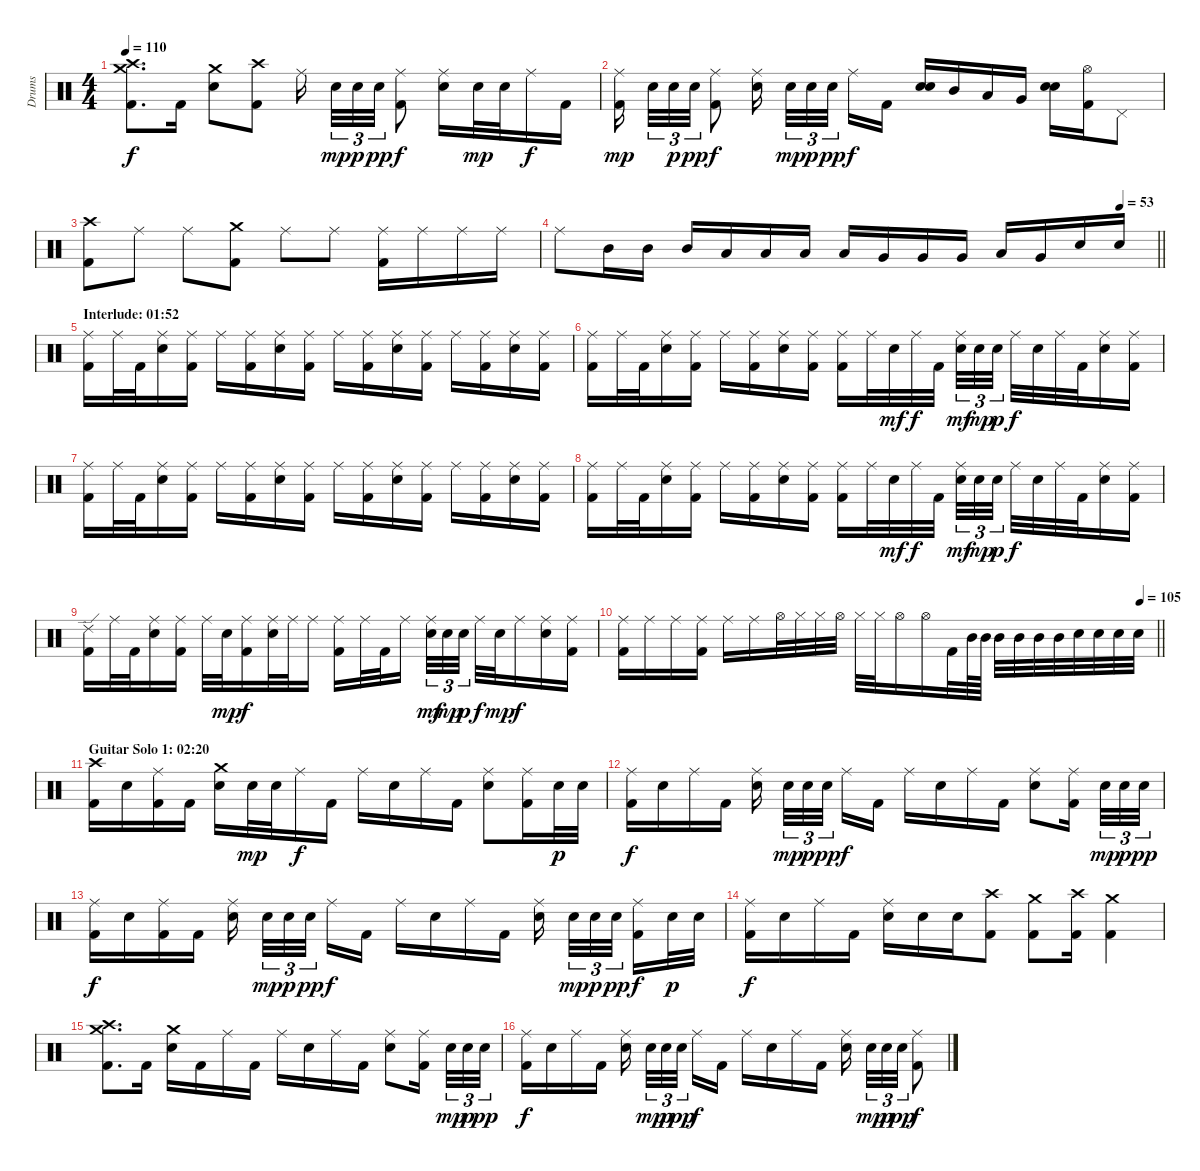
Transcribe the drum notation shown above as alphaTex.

\track ("Drums" "Drums") {instrument percussion}
\staff {score}
\articulation defaults
\ts (4 4)
\tempo 110
\clef neutral
\ks c
("Crash high (hit)" "Crash medium (hit)" "Kick (hit) 2").8{d dy f} "Kick (hit) 2".16 ("Crash medium (hit)" "Electric Snare (hit)").8 ("Crash high (hit)" "Kick (hit) 2").8 "Ride (middle)".16{beam splitsecondary} "Electric Snare (hit)".32{tu (3 2) dy mp} "Electric Snare (hit)".32{tu (3 2) dy p} "Electric Snare (hit)".32{tu (3 2) dy pp} ("Ride (middle)" "Kick (hit) 2").8{dy f} ("Ride (middle)" "Electric Snare (hit)").16 "Electric Snare (hit)".32{dy mp} "Electric Snare (hit)".32 "Ride (middle)".16{dy f} "Kick (hit) 2".16 |
("Ride (middle)" "Kick (hit) 2").16{dy mp beam splitsecondary} "Electric Snare (hit)".32{tu (3 2)} "Electric Snare (hit)".32{tu (3 2) dy p} "Electric Snare (hit)".32{tu (3 2) dy pp} ("Ride (middle)" "Kick (hit) 2").8{dy f} ("Ride (middle)" "Electric Snare (hit)").16{beam splitsecondary} "Electric Snare (hit)".32{tu (3 2) dy mp} "Electric Snare (hit)".32{tu (3 2) dy p} "Electric Snare (hit)".32{tu (3 2) dy pp beam splitsecondary} "Ride (middle)".16{dy f} "Kick (hit) 2".16 ("Electric Snare (hit)" "Electric Snare (hit)").16{bu 60} "Mid Tom (hit)".16 "Low Tom (hit)".16 "Very Low Tom (hit)".16 ("Electric Snare (hit)" "Electric Snare (hit)").16{bu 60} ("Hi-Hat (open)" "Kick (hit) 2").16 "Pedal Hi-Hat (hit)".8 |
("Crash high (hit)" "Kick (hit) 2").8{volume 4} "Ride (middle)".8 "Ride (middle)".8 ("Crash medium (hit)" "Kick (hit) 2").8 "Ride (middle)".8 "Ride (middle)".8 ("Ride (middle)" "Kick (hit) 2").16 "Ride (middle)".16 "Ride (middle)".16 "Ride (middle)".16 |
\tempo (53 0.9375)
\barLineRight lightlight "Ride (middle)".8 "Mid Tom (hit)".16 "Mid Tom (hit)".16 "Mid Tom (hit)".16 "Low Tom (hit)".16 "Low Tom (hit)".16 "Low Tom (hit)".16 "Low Tom (hit)".16 "Very Low Tom (hit)".16 "Very Low Tom (hit)".16 "Very Low Tom (hit)".16 "Low Tom (hit)".16 "Very Low Tom (hit)".16 "Electric Snare (hit)".16 "Electric Snare (hit)".16
|
\section ("" "Interlude: 01:52")
("Ride (middle)" "Kick (hit) 2").16{volume 5} "Ride (middle)".32 "Kick (hit) 2".32 ("Ride (middle)" "Electric Snare (hit)").16 ("Ride (middle)" "Kick (hit) 2").16 "Ride (middle)".16 ("Ride (middle)" "Kick (hit) 2").16 ("Ride (middle)" "Electric Snare (hit)").16 ("Ride (middle)" "Kick (hit) 2").16 "Ride (middle)".16 ("Ride (middle)" "Kick (hit) 2").16 ("Ride (middle)" "Electric Snare (hit)").16 ("Ride (middle)" "Kick (hit) 2").16 "Ride (middle)".16 ("Ride (middle)" "Kick (hit) 2").16 ("Ride (middle)" "Electric Snare (hit)").16 ("Ride (middle)" "Kick (hit) 2").16 |
("Ride (middle)" "Kick (hit) 2").16 "Ride (middle)".32 "Kick (hit) 2".32 ("Ride (middle)" "Electric Snare (hit)").16 ("Ride (middle)" "Kick (hit) 2").16 "Ride (middle)".16 ("Ride (middle)" "Kick (hit) 2").16 ("Ride (middle)" "Electric Snare (hit)").16 ("Ride (middle)" "Kick (hit) 2").16 ("Ride (middle)" "Kick (hit) 2").16 "Ride (middle)".32 "Electric Snare (hit)".32{dy mf} "Ride (middle)".32{dy f} "Kick (hit) 2".32{beam splitsecondary} ("Ride (middle)" "Electric Snare (hit)").32{tu (3 2) dy mf} "Electric Snare (hit)".32{tu (3 2) dy mp} "Electric Snare (hit)".32{tu (3 2) dy p} "Ride (middle)".32{dy f} "Electric Snare (hit)".32 "Ride (middle)".32 "Kick (hit) 2".32 ("Ride (middle)" "Electric Snare (hit)").16 ("Ride (middle)" "Kick (hit) 2").16 |
("Ride (middle)" "Kick (hit) 2").16 "Ride (middle)".32 "Kick (hit) 2".32 ("Ride (middle)" "Electric Snare (hit)").16 ("Ride (middle)" "Kick (hit) 2").16 "Ride (middle)".16 ("Ride (middle)" "Kick (hit) 2").16 ("Ride (middle)" "Electric Snare (hit)").16 ("Ride (middle)" "Kick (hit) 2").16 "Ride (middle)".16 ("Ride (middle)" "Kick (hit) 2").16 ("Ride (middle)" "Electric Snare (hit)").16 ("Ride (middle)" "Kick (hit) 2").16 "Ride (middle)".16 ("Ride (middle)" "Kick (hit) 2").16 ("Ride (middle)" "Electric Snare (hit)").16 ("Ride (middle)" "Kick (hit) 2").16 |
("Ride (middle)" "Kick (hit) 2").16 "Ride (middle)".32 "Kick (hit) 2".32 ("Ride (middle)" "Electric Snare (hit)").16 ("Ride (middle)" "Kick (hit) 2").16 "Ride (middle)".16 ("Ride (middle)" "Kick (hit) 2").16 ("Ride (middle)" "Electric Snare (hit)").16 ("Ride (middle)" "Kick (hit) 2").16 ("Ride (middle)" "Kick (hit) 2").16 "Ride (middle)".32 "Electric Snare (hit)".32{dy mf} "Ride (middle)".32{dy f} "Kick (hit) 2".32{beam splitsecondary} ("Ride (middle)" "Electric Snare (hit)").32{tu (3 2) dy mf} "Electric Snare (hit)".32{tu (3 2) dy mp} "Electric Snare (hit)".32{tu (3 2) dy p} "Ride (middle)".32{dy f} "Electric Snare (hit)".32 "Ride (middle)".32 "Kick (hit) 2".32 ("Ride (middle)" "Electric Snare (hit)").16 ("Ride (middle)" "Kick (hit) 2").16 |
("Ride (edge) 2" "Kick (hit) 2").16 "Ride (middle)".32 "Kick (hit) 2".32 ("Ride (middle)" "Electric Snare (hit)").16 ("Ride (middle)" "Kick (hit) 2").16 "Ride (middle)".32 "Electric Snare (hit)".32{dy mp} ("Ride (middle)" "Kick (hit) 2").16{dy f} ("Ride (middle)" "Electric Snare (hit)").32 "Ride (middle)".32 "Ride (middle)".16 ("Ride (middle)" "Kick (hit) 2").16 "Ride (middle)".32 "Kick (hit) 2".32 "Ride (middle)".16{beam splitsecondary} ("Ride (middle)" "Electric Snare (hit)").32{tu (3 2) dy mf} "Electric Snare (hit)".32{tu (3 2) dy mp} "Electric Snare (hit)".32{tu (3 2) dy p} "Ride (middle)".32{dy f} "Electric Snare (hit)".32{dy mp} "Ride (middle)".16{dy f} ("Ride (middle)" "Electric Snare (hit)").16 ("Ride (middle)" "Kick (hit) 2").16 |
\tempo (105 0.96875)
\barLineRight lightlight
("Ride (middle)" "Kick (hit) 2").16 "Ride (middle)".16 "Ride (middle)".16 ("Ride (middle)" "Kick (hit) 2").16 "Ride (middle)".16 "Ride (middle)".16 "Hi-Hat (open)".32{volume 12} "Hi-Hat (closed)".32 "Hi-Hat (closed)".32 "Hi-Hat (open)".32 "Hi-Hat (closed)".32 "Hi-Hat (closed)".32 "Hi-Hat (open)".16 "Hi-Hat (open)".16 "Kick (hit) 2".32 "Mid Tom (hit)".64 "Mid Tom (hit)".64 "Mid Tom (hit)".32 "Mid Tom (hit)".32 "Mid Tom (hit)".32 "Mid Tom (hit)".32 "Electric Snare (hit)".32 "Electric Snare (hit)".32 "Electric Snare (hit)".32 "Electric Snare (hit)".32 |
\section ("" "Guitar Solo 1: 02:20")
("Crash high (hit)" "Kick (hit) 2").16 "Electric Snare (hit)".16 ("Ride (middle)" "Kick (hit) 2").16 "Kick (hit) 2".16 ("Crash medium (hit)" "Electric Snare (hit)").16 "Electric Snare (hit)".32{dy mp} "Electric Snare (hit)".32 "Ride (middle)".16{dy f} "Kick (hit) 2".16 "Ride (middle)".16 "Electric Snare (hit)".16 "Ride (middle)".16 "Kick (hit) 2".16 ("Ride (middle)" "Electric Snare (hit)").8 ("Ride (middle)" "Kick (hit) 2").16 "Electric Snare (hit)".32{dy p} "Electric Snare (hit)".32 |
("Ride (middle)" "Kick (hit) 2").16{dy f} "Electric Snare (hit)".16 "Ride (middle)".16 "Kick (hit) 2".16 ("Ride (middle)" "Electric Snare (hit)").16{beam splitsecondary} "Electric Snare (hit)".32{tu (3 2) dy mp} "Electric Snare (hit)".32{tu (3 2) dy p} "Electric Snare (hit)".32{tu (3 2) dy pp beam splitsecondary} "Ride (middle)".16{dy f} "Kick (hit) 2".16 "Ride (middle)".16 "Electric Snare (hit)".16 "Ride (middle)".16 "Kick (hit) 2".16 ("Ride (middle)" "Electric Snare (hit)").8 ("Ride (middle)" "Kick (hit) 2").16{beam splitsecondary} "Electric Snare (hit)".32{tu (3 2) dy mp} "Electric Snare (hit)".32{tu (3 2) dy p} "Electric Snare (hit)".32{tu (3 2) dy pp} |
("Ride (middle)" "Kick (hit) 2").16{dy f} "Electric Snare (hit)".16 ("Ride (middle)" "Kick (hit) 2").16 "Kick (hit) 2".16 ("Ride (middle)" "Electric Snare (hit)").16{beam splitsecondary} "Electric Snare (hit)".32{tu (3 2) dy mp} "Electric Snare (hit)".32{tu (3 2) dy p} "Electric Snare (hit)".32{tu (3 2) dy pp beam splitsecondary} "Ride (middle)".16{dy f} "Kick (hit) 2".16 "Ride (middle)".16 "Electric Snare (hit)".16 "Ride (middle)".16 "Kick (hit) 2".16 ("Ride (middle)" "Electric Snare (hit)").16{beam splitsecondary} "Electric Snare (hit)".32{tu (3 2) dy mp} "Electric Snare (hit)".32{tu (3 2) dy p} "Electric Snare (hit)".32{tu (3 2) dy pp beam splitsecondary} ("Ride (middle)" "Kick (hit) 2").16{dy f} "Electric Snare (hit)".32{dy p} "Electric Snare (hit)".32 |
("Ride (middle)" "Kick (hit) 2").16{dy f} "Electric Snare (hit)".16 "Ride (middle)".16 "Kick (hit) 2".16 ("Ride (middle)" "Electric Snare (hit)").16 "Electric Snare (hit)".16 "Electric Snare (hit)".16 ("Crash high (hit)" "Kick (hit) 2").8 ("Crash medium (hit)" "Kick (hit) 2").8 ("Crash high (hit)" "Kick (hit) 2").16 ("Crash medium (hit)" "Kick (hit) 2").4 |
("Crash high (hit)" "Crash medium (hit)" "Kick (hit) 2").8{d} "Kick (hit) 2".16 ("Crash medium (hit)" "Electric Snare (hit)").16 "Kick (hit) 2".16 "Ride (middle)".16 "Kick (hit) 2".16 "Ride (middle)".16 "Electric Snare (hit)".16 "Ride (middle)".16 "Kick (hit) 2".16 ("Ride (middle)" "Electric Snare (hit)").8 ("Ride (middle)" "Kick (hit) 2").16{beam splitsecondary} "Electric Snare (hit)".32{tu (3 2) dy mp} "Electric Snare (hit)".32{tu (3 2) dy p} "Electric Snare (hit)".32{tu (3 2) dy pp} |
("Ride (middle)" "Kick (hit) 2").16{dy f} "Electric Snare (hit)".16 "Ride (middle)".16 "Kick (hit) 2".16 ("Ride (middle)" "Electric Snare (hit)").16{beam splitsecondary} "Electric Snare (hit)".32{tu (3 2) dy mp} "Electric Snare (hit)".32{tu (3 2) dy p} "Electric Snare (hit)".32{tu (3 2) dy pp beam splitsecondary} "Ride (middle)".16{dy f} "Kick (hit) 2".16 "Ride (middle)".16 "Electric Snare (hit)".16 "Ride (middle)".16 "Kick (hit) 2".16 ("Ride (middle)" "Electric Snare (hit)").16{beam splitsecondary} "Electric Snare (hit)".32{tu (3 2) dy mp} "Electric Snare (hit)".32{tu (3 2) dy p} "Electric Snare (hit)".32{tu (3 2) dy pp} ("Ride (middle)" "Kick (hit) 2").8{dy f}
